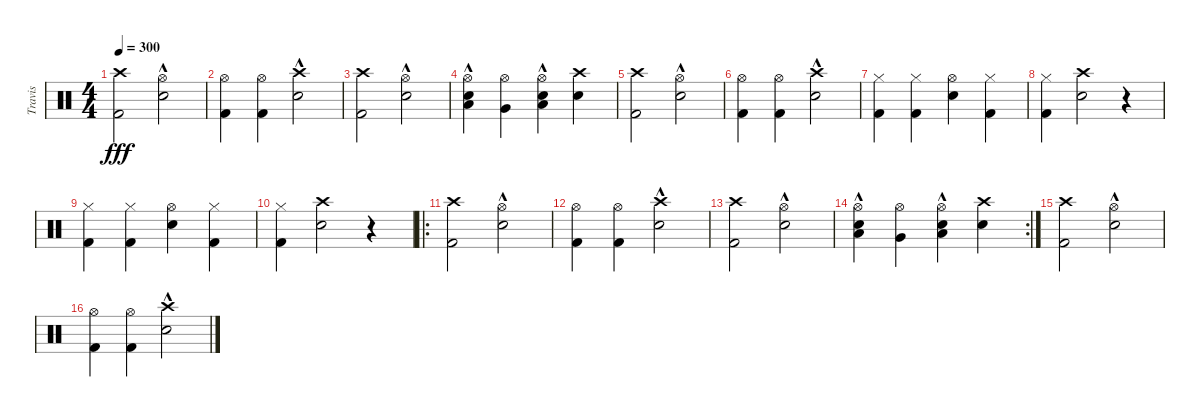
\track ("Travis" "Travis") {instrument percussion}
\staff {score}
\articulation defaults
\ts (4 4)
\tempo 300
\clef neutral
\ks c
("Crash high (hit)" "Kick (hit) 2").2{dy fff} ("Hi-Hat (open)" "Electric Snare (hit)"{hac}).2 |
("Hi-Hat (open)" "Kick (hit) 2").4 ("Hi-Hat (open)" "Kick (hit) 2").4 ("Crash high (hit)" "Electric Snare (hit)"{hac}).2 |
("Crash high (hit)" "Kick (hit) 2").2 ("Hi-Hat (open)" "Electric Snare (hit)"{hac}).2 |
("Hi-Hat (open)" "Low Tom (hit)" "Electric Snare (hit)"{hac}).4 ("Hi-Hat (open)" "Very Low Tom (hit)").4 ("Hi-Hat (open)" "Low Floor Tom (hit)" "Electric Snare (hit)"{hac}).4 ("Crash high (hit)" "Electric Snare (hit)").4 |
("Crash high (hit)" "Kick (hit) 2").2 ("Hi-Hat (open)" "Electric Snare (hit)"{hac}).2 |
("Hi-Hat (open)" "Kick (hit) 2").4 ("Hi-Hat (open)" "Kick (hit) 2").4 ("Crash high (hit)" "Electric Snare (hit)"{hac}).2 |
("Hi-Hat (closed)" "Kick (hit) 2").4 ("Hi-Hat (closed)" "Kick (hit) 2").4 ("Hi-Hat (open)" "Electric Snare (hit)").4 ("Hi-Hat (closed)" "Kick (hit) 2").4 |
("Hi-Hat (closed)" "Kick (hit) 2").4 ("Crash high (hit)" "Electric Snare (hit)").2 r.4 |
("Hi-Hat (closed)" "Kick (hit) 2").4 ("Hi-Hat (closed)" "Kick (hit) 2").4 ("Hi-Hat (open)" "Electric Snare (hit)").4 ("Hi-Hat (closed)" "Kick (hit) 2").4 |
("Hi-Hat (closed)" "Kick (hit) 2").4 ("Crash high (hit)" "Electric Snare (hit)").2 r.4 |
\ro
("Crash high (hit)" "Kick (hit) 2").2 ("Hi-Hat (open)" "Electric Snare (hit)"{hac}).2 |
("Hi-Hat (open)" "Kick (hit) 2").4 ("Hi-Hat (open)" "Kick (hit) 2").4 ("Crash high (hit)" "Electric Snare (hit)"{hac}).2 |
("Crash high (hit)" "Kick (hit) 2").2 ("Hi-Hat (open)" "Electric Snare (hit)"{hac}).2 |
\rc 2
("Hi-Hat (open)" "Low Tom (hit)" "Electric Snare (hit)"{hac}).4 ("Hi-Hat (open)" "Very Low Tom (hit)").4 ("Hi-Hat (open)" "Low Floor Tom (hit)" "Electric Snare (hit)"{hac}).4 ("Crash high (hit)" "Electric Snare (hit)").4 |
("Crash high (hit)" "Kick (hit) 2").2 ("Hi-Hat (open)" "Electric Snare (hit)"{hac}).2 |
("Hi-Hat (open)" "Kick (hit) 2").4 ("Hi-Hat (open)" "Kick (hit) 2").4 ("Crash high (hit)" "Electric Snare (hit)"{hac}).2
